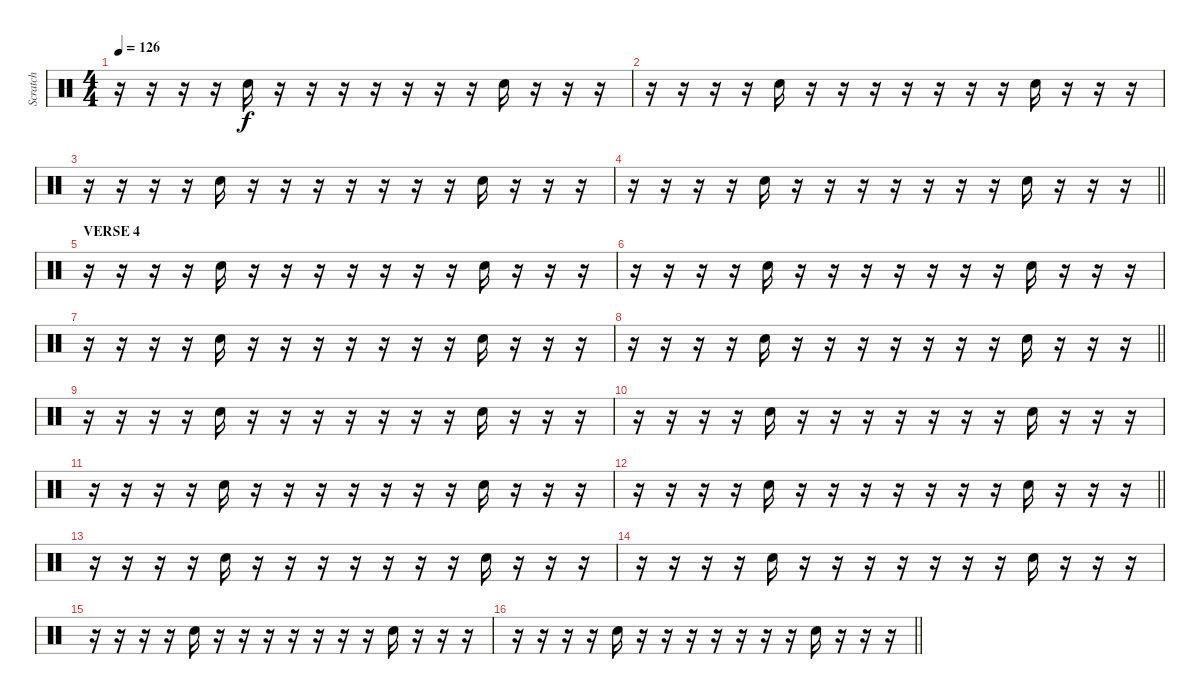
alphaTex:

\track ("Scratch" "Scratch") {instrument percussion}
\staff {score}
\articulation defaults
\ts (4 4)
\tempo 126
\clef neutral
\ks c
r.16{dy f} r.16 r.16 r.16 "Hand Clap (hit)".16 r.16 r.16 r.16 r.16 r.16 r.16 r.16 "Hand Clap (hit)".16 r.16 r.16 r.16 |
r.16 r.16 r.16 r.16 "Hand Clap (hit)".16 r.16 r.16 r.16 r.16 r.16 r.16 r.16 "Hand Clap (hit)".16 r.16 r.16 r.16 |
r.16 r.16 r.16 r.16 "Hand Clap (hit)".16 r.16 r.16 r.16 r.16 r.16 r.16 r.16 "Hand Clap (hit)".16 r.16 r.16 r.16 |
\barLineRight lightlight
r.16 r.16 r.16 r.16 "Hand Clap (hit)".16 r.16 r.16 r.16 r.16 r.16 r.16 r.16 "Hand Clap (hit)".16 r.16 r.16 r.16 |
\section ("" "VERSE 4")
r.16 r.16 r.16 r.16 "Hand Clap (hit)".16 r.16 r.16 r.16 r.16 r.16 r.16 r.16 "Hand Clap (hit)".16 r.16 r.16 r.16 |
r.16 r.16 r.16 r.16 "Hand Clap (hit)".16 r.16 r.16 r.16 r.16 r.16 r.16 r.16 "Hand Clap (hit)".16 r.16 r.16 r.16 |
r.16 r.16 r.16 r.16 "Hand Clap (hit)".16 r.16 r.16 r.16 r.16 r.16 r.16 r.16 "Hand Clap (hit)".16 r.16 r.16 r.16 |
\barLineRight lightlight
r.16 r.16 r.16 r.16 "Hand Clap (hit)".16 r.16 r.16 r.16 r.16 r.16 r.16 r.16 "Hand Clap (hit)".16 r.16 r.16 r.16 |
r.16 r.16 r.16 r.16 "Hand Clap (hit)".16 r.16 r.16 r.16 r.16 r.16 r.16 r.16 "Hand Clap (hit)".16 r.16 r.16 r.16 |
r.16 r.16 r.16 r.16 "Hand Clap (hit)".16 r.16 r.16 r.16 r.16 r.16 r.16 r.16 "Hand Clap (hit)".16 r.16 r.16 r.16 |
r.16 r.16 r.16 r.16 "Hand Clap (hit)".16 r.16 r.16 r.16 r.16 r.16 r.16 r.16 "Hand Clap (hit)".16 r.16 r.16 r.16 |
\barLineRight lightlight
r.16 r.16 r.16 r.16 "Hand Clap (hit)".16 r.16 r.16 r.16 r.16 r.16 r.16 r.16 "Hand Clap (hit)".16 r.16 r.16 r.16 |
r.16 r.16 r.16 r.16 "Hand Clap (hit)".16 r.16 r.16 r.16 r.16 r.16 r.16 r.16 "Hand Clap (hit)".16 r.16 r.16 r.16 |
r.16 r.16 r.16 r.16 "Hand Clap (hit)".16 r.16 r.16 r.16 r.16 r.16 r.16 r.16 "Hand Clap (hit)".16 r.16 r.16 r.16 |
r.16 r.16 r.16 r.16 "Hand Clap (hit)".16 r.16 r.16 r.16 r.16 r.16 r.16 r.16 "Hand Clap (hit)".16 r.16 r.16 r.16 |
\barLineRight lightlight
r.16 r.16 r.16 r.16 "Hand Clap (hit)".16 r.16 r.16 r.16 r.16 r.16 r.16 r.16 "Hand Clap (hit)".16 r.16 r.16 r.16
